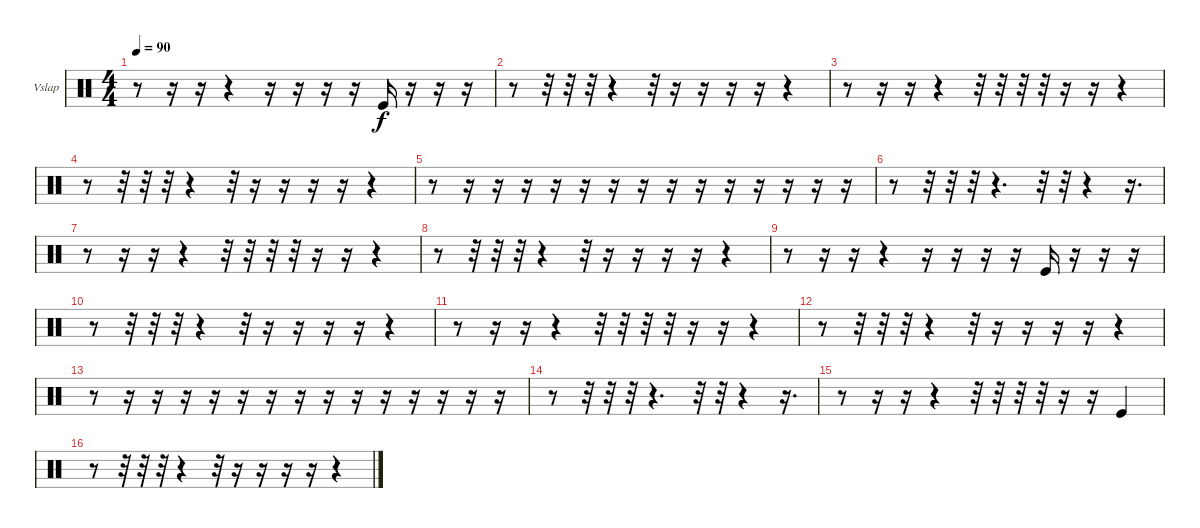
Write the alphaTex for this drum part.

\defaultSystemsLayout 4
\bracketExtendMode groupsimilarinstruments
\firstSystemTrackNameOrientation horizontal
\otherSystemsTrackNameOrientation horizontal
\track ("Vibraslap" "Vslap") {instrument percussion}
\staff {score}
\articulation defaults
\ts (4 4)
\tempo 90
\clef neutral
\scale
0.333333
\ks c
r.8{dy f} r.16 r.16 r.4 r.16 r.16 r.16 r.16 "Kick (hit)".16 r.16 r.16 r.16 |
\scale
0.333333 r.8 r.32 r.32 r.32 r.4 r.32 r.16 r.16 r.16 r.16 r.4 |
\scale
0.333333 r.8 r.16 r.16 r.4 r.32 r.32 r.32 r.32 r.16 r.16 r.4 |
\scale
0.333333 r.8 r.32 r.32 r.32 r.4 r.32 r.16 r.16 r.16 r.16 r.4 |
\scale
0.333333 r.8 r.16 r.16 r.16 r.16 r.16 r.16 r.16 r.16 r.16 r.16 r.16 r.16 r.16 r.16 |
\scale
0.333333 r.8 r.32 r.32 r.32 r.4{d} r.32 r.32 r.4 r.16{d} |
\scale
0.333333 r.8 r.16 r.16 r.4 r.32 r.32 r.32 r.32 r.16 r.16 r.4 |
\scale
0.333333 r.8 r.32 r.32 r.32 r.4 r.32 r.16 r.16 r.16 r.16 r.4 |
\scale
0.333333 r.8 r.16 r.16 r.4 r.16 r.16 r.16 r.16 "Kick (hit)".16 r.16 r.16 r.16 |
\scale
0.333333 r.8 r.32 r.32 r.32 r.4 r.32 r.16 r.16 r.16 r.16 r.4 |
\scale
0.333333 r.8 r.16 r.16 r.4 r.32 r.32 r.32 r.32 r.16 r.16 r.4 |
\scale
0.333333 r.8 r.32 r.32 r.32 r.4 r.32 r.16 r.16 r.16 r.16 r.4 |
\scale
0.333333 r.8 r.16 r.16 r.16 r.16 r.16 r.16 r.16 r.16 r.16 r.16 r.16 r.16 r.16 r.16 |
\scale
0.333333 r.8 r.32 r.32 r.32 r.4{d} r.32 r.32 r.4 r.16{d} |
\scale
0.333333 r.8 r.16 r.16 r.4 r.32 r.32 r.32 r.32 r.16 r.16 "Kick (hit)".4 |
\scale
0.333333 r.8 r.32 r.32 r.32 r.4 r.32 r.16 r.16 r.16 r.16 r.4
